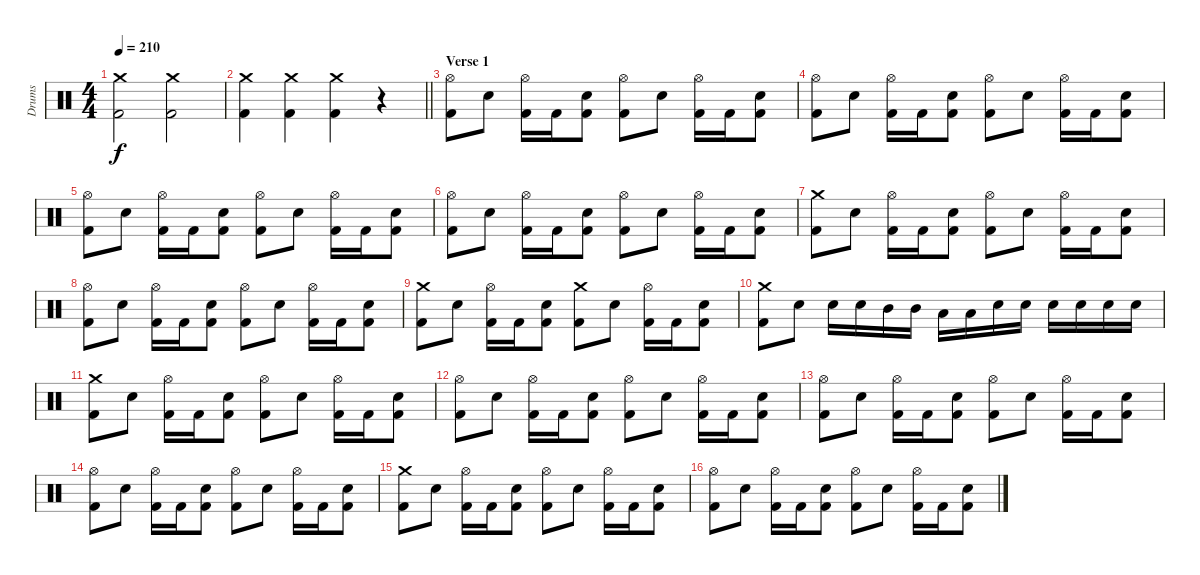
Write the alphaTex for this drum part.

\track ("Drums" "Drums") {instrument percussion}
\staff {score}
\articulation defaults
\ts (4 4)
\tempo 210
\clef neutral
\ks c
("Crash medium (hit)" "Kick (hit) 2").2{dy f} ("Crash medium (hit)" "Kick (hit) 2").2 |
\barLineRight lightlight
("Crash medium (hit)" "Kick (hit) 2").4 ("Crash medium (hit)" "Kick (hit) 2").4 ("Crash medium (hit)" "Kick (hit) 2").4 r.4 |
\section ("" "Verse 1")
("Hi-Hat (open)" "Kick (hit) 2").8 "Electric Snare (hit)".8 ("Hi-Hat (open)" "Kick (hit) 2").16 "Kick (hit) 2".16 ("Electric Snare (hit)" "Kick (hit) 2").8 ("Hi-Hat (open)" "Kick (hit) 2").8 "Electric Snare (hit)".8 ("Hi-Hat (open)" "Kick (hit) 2").16 "Kick (hit) 2".16 ("Electric Snare (hit)" "Kick (hit) 2").8 |
("Hi-Hat (open)" "Kick (hit) 2").8 "Electric Snare (hit)".8 ("Hi-Hat (open)" "Kick (hit) 2").16 "Kick (hit) 2".16 ("Electric Snare (hit)" "Kick (hit) 2").8 ("Hi-Hat (open)" "Kick (hit) 2").8 "Electric Snare (hit)".8 ("Hi-Hat (open)" "Kick (hit) 2").16 "Kick (hit) 2".16 ("Electric Snare (hit)" "Kick (hit) 2").8 |
("Hi-Hat (open)" "Kick (hit) 2").8 "Electric Snare (hit)".8 ("Hi-Hat (open)" "Kick (hit) 2").16 "Kick (hit) 2".16 ("Electric Snare (hit)" "Kick (hit) 2").8 ("Hi-Hat (open)" "Kick (hit) 2").8 "Electric Snare (hit)".8 ("Hi-Hat (open)" "Kick (hit) 2").16 "Kick (hit) 2".16 ("Electric Snare (hit)" "Kick (hit) 2").8 |
("Hi-Hat (open)" "Kick (hit) 2").8 "Electric Snare (hit)".8 ("Hi-Hat (open)" "Kick (hit) 2").16 "Kick (hit) 2".16 ("Electric Snare (hit)" "Kick (hit) 2").8 ("Hi-Hat (open)" "Kick (hit) 2").8 "Electric Snare (hit)".8 ("Hi-Hat (open)" "Kick (hit) 2").16 "Kick (hit) 2".16 ("Electric Snare (hit)" "Kick (hit) 2").8 |
("Crash medium (hit)" "Kick (hit) 2").8 "Electric Snare (hit)".8 ("Hi-Hat (open)" "Kick (hit) 2").16 "Kick (hit) 2".16 ("Electric Snare (hit)" "Kick (hit) 2").8 ("Hi-Hat (open)" "Kick (hit) 2").8 "Electric Snare (hit)".8 ("Hi-Hat (open)" "Kick (hit) 2").16 "Kick (hit) 2".16 ("Electric Snare (hit)" "Kick (hit) 2").8 |
("Hi-Hat (open)" "Kick (hit) 2").8 "Electric Snare (hit)".8 ("Hi-Hat (open)" "Kick (hit) 2").16 "Kick (hit) 2".16 ("Electric Snare (hit)" "Kick (hit) 2").8 ("Hi-Hat (open)" "Kick (hit) 2").8 "Electric Snare (hit)".8 ("Hi-Hat (open)" "Kick (hit) 2").16 "Kick (hit) 2".16 ("Electric Snare (hit)" "Kick (hit) 2").8 |
("Crash medium (hit)" "Kick (hit) 2").8 "Electric Snare (hit)".8 ("Hi-Hat (open)" "Kick (hit) 2").16 "Kick (hit) 2".16 ("Electric Snare (hit)" "Kick (hit) 2").8 ("Crash medium (hit)" "Kick (hit) 2").8 "Electric Snare (hit)".8 ("Hi-Hat (open)" "Kick (hit) 2").16 "Kick (hit) 2".16 ("Electric Snare (hit)" "Kick (hit) 2").8 |
("Crash medium (hit)" "Kick (hit) 2").8 "Electric Snare (hit)".8 "Electric Snare (hit)".16 "Electric Snare (hit)".16 "Mid Tom (hit)".16 "Mid Tom (hit)".16 "Low Tom (hit)".16 "Low Tom (hit)".16 "Electric Snare (hit)".16 "Electric Snare (hit)".16 "Electric Snare (hit)".16 "Electric Snare (hit)".16 "Electric Snare (hit)".16 "Electric Snare (hit)".16 |
("Crash medium (hit)" "Kick (hit) 2").8 "Electric Snare (hit)".8 ("Hi-Hat (open)" "Kick (hit) 2").16 "Kick (hit) 2".16 ("Electric Snare (hit)" "Kick (hit) 2").8 ("Hi-Hat (open)" "Kick (hit) 2").8 "Electric Snare (hit)".8 ("Hi-Hat (open)" "Kick (hit) 2").16 "Kick (hit) 2".16 ("Electric Snare (hit)" "Kick (hit) 2").8 |
("Hi-Hat (open)" "Kick (hit) 2").8 "Electric Snare (hit)".8 ("Hi-Hat (open)" "Kick (hit) 2").16 "Kick (hit) 2".16 ("Electric Snare (hit)" "Kick (hit) 2").8 ("Hi-Hat (open)" "Kick (hit) 2").8 "Electric Snare (hit)".8 ("Hi-Hat (open)" "Kick (hit) 2").16 "Kick (hit) 2".16 ("Electric Snare (hit)" "Kick (hit) 2").8 |
("Hi-Hat (open)" "Kick (hit) 2").8 "Electric Snare (hit)".8 ("Hi-Hat (open)" "Kick (hit) 2").16 "Kick (hit) 2".16 ("Electric Snare (hit)" "Kick (hit) 2").8 ("Hi-Hat (open)" "Kick (hit) 2").8 "Electric Snare (hit)".8 ("Hi-Hat (open)" "Kick (hit) 2").16 "Kick (hit) 2".16 ("Electric Snare (hit)" "Kick (hit) 2").8 |
("Hi-Hat (open)" "Kick (hit) 2").8 "Electric Snare (hit)".8 ("Hi-Hat (open)" "Kick (hit) 2").16 "Kick (hit) 2".16 ("Electric Snare (hit)" "Kick (hit) 2").8 ("Hi-Hat (open)" "Kick (hit) 2").8 "Electric Snare (hit)".8 ("Hi-Hat (open)" "Kick (hit) 2").16 "Kick (hit) 2".16 ("Electric Snare (hit)" "Kick (hit) 2").8 |
("Crash medium (hit)" "Kick (hit) 2").8 "Electric Snare (hit)".8 ("Hi-Hat (open)" "Kick (hit) 2").16 "Kick (hit) 2".16 ("Electric Snare (hit)" "Kick (hit) 2").8 ("Hi-Hat (open)" "Kick (hit) 2").8 "Electric Snare (hit)".8 ("Hi-Hat (open)" "Kick (hit) 2").16 "Kick (hit) 2".16 ("Electric Snare (hit)" "Kick (hit) 2").8 |
("Hi-Hat (open)" "Kick (hit) 2").8 "Electric Snare (hit)".8 ("Hi-Hat (open)" "Kick (hit) 2").16 "Kick (hit) 2".16 ("Electric Snare (hit)" "Kick (hit) 2").8 ("Hi-Hat (open)" "Kick (hit) 2").8 "Electric Snare (hit)".8 ("Hi-Hat (open)" "Kick (hit) 2").16 "Kick (hit) 2".16 ("Electric Snare (hit)" "Kick (hit) 2").8
